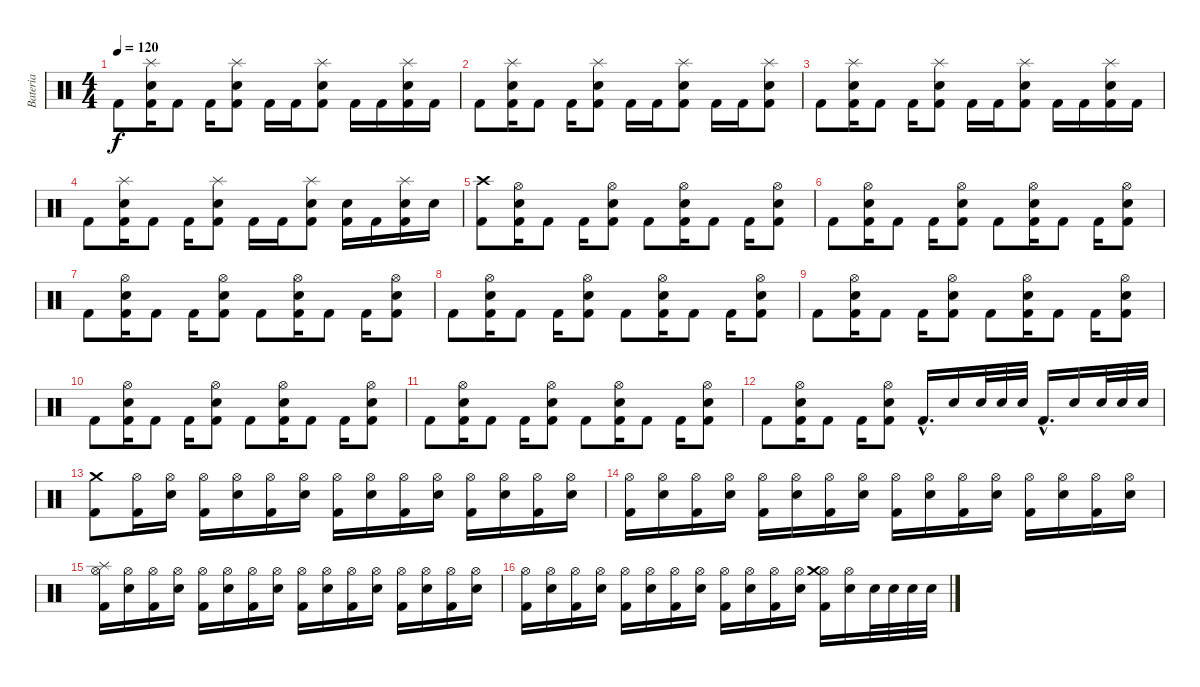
\track ("Bateria" "Bateria") {instrument percussion}
\staff {score}
\articulation defaults
\ts (4 4)
\tempo 120
\clef neutral
\ks c "Kick (hit) 2".8{dy f}
("Kick (hit) 2" "Electric Snare (hit)" "Splash (hit)").16 "Kick (hit) 2".8 "Kick (hit) 2".16 ("Kick (hit) 2" "Electric Snare (hit)" "Splash (hit)").8 "Kick (hit) 2".16 "Kick (hit) 2".16 ("Kick (hit) 2" "Electric Snare (hit)" "Splash (hit)").8 "Kick (hit) 2".16 "Kick (hit) 2".16 ("Kick (hit) 2" "Electric Snare (hit)" "Splash (hit)").16 "Kick (hit) 2".16 |
"Kick (hit) 2".8 ("Kick (hit) 2" "Electric Snare (hit)" "Splash (hit)").16 "Kick (hit) 2".8 "Kick (hit) 2".16 ("Kick (hit) 2" "Electric Snare (hit)" "Splash (hit)").8 "Kick (hit) 2".16 "Kick (hit) 2".16 ("Kick (hit) 2" "Electric Snare (hit)" "Splash (hit)").8 "Kick (hit) 2".16 "Kick (hit) 2".16 ("Kick (hit) 2" "Electric Snare (hit)" "Splash (hit)").8 |
"Kick (hit) 2".8 ("Kick (hit) 2" "Electric Snare (hit)" "Splash (hit)").16 "Kick (hit) 2".8 "Kick (hit) 2".16 ("Kick (hit) 2" "Electric Snare (hit)" "Splash (hit)").8 "Kick (hit) 2".16 "Kick (hit) 2".16 ("Kick (hit) 2" "Electric Snare (hit)" "Splash (hit)").8 "Kick (hit) 2".16 "Kick (hit) 2".16 ("Kick (hit) 2" "Electric Snare (hit)" "Splash (hit)").16 "Kick (hit) 2".16 |
"Kick (hit) 2".8 ("Kick (hit) 2" "Electric Snare (hit)" "Splash (hit)").16 "Kick (hit) 2".8 "Kick (hit) 2".16 ("Kick (hit) 2" "Electric Snare (hit)" "Splash (hit)").8 "Kick (hit) 2".16 "Kick (hit) 2".16 ("Kick (hit) 2" "Electric Snare (hit)" "Splash (hit)").8 ("Kick (hit) 2" "Electric Snare (hit)").16 "Kick (hit) 2".16 ("Kick (hit) 2" "Electric Snare (hit)" "Splash (hit)").16 "Electric Snare (hit)".16 |
("Kick (hit) 2" "Crash high (hit)").8 ("Kick (hit) 2" "Electric Snare (hit)" "Hi-Hat (open)").16 "Kick (hit) 2".8 "Kick (hit) 2".16 ("Kick (hit) 2" "Electric Snare (hit)" "Hi-Hat (open)").8 "Kick (hit) 2".8 ("Kick (hit) 2" "Electric Snare (hit)" "Hi-Hat (open)").16 "Kick (hit) 2".8 "Kick (hit) 2".16 ("Kick (hit) 2" "Electric Snare (hit)" "Hi-Hat (open)").8 |
"Kick (hit) 2".8 ("Kick (hit) 2" "Electric Snare (hit)" "Hi-Hat (open)").16 "Kick (hit) 2".8 "Kick (hit) 2".16 ("Kick (hit) 2" "Electric Snare (hit)" "Hi-Hat (open)").8 "Kick (hit) 2".8 ("Kick (hit) 2" "Electric Snare (hit)" "Hi-Hat (open)").16 "Kick (hit) 2".8 "Kick (hit) 2".16 ("Kick (hit) 2" "Electric Snare (hit)" "Hi-Hat (open)").8 |
"Kick (hit) 2".8 ("Kick (hit) 2" "Electric Snare (hit)" "Hi-Hat (open)").16 "Kick (hit) 2".8 "Kick (hit) 2".16 ("Kick (hit) 2" "Electric Snare (hit)" "Hi-Hat (open)").8 "Kick (hit) 2".8 ("Kick (hit) 2" "Electric Snare (hit)" "Hi-Hat (open)").16 "Kick (hit) 2".8 "Kick (hit) 2".16 ("Kick (hit) 2" "Electric Snare (hit)" "Hi-Hat (open)").8 |
"Kick (hit) 2".8 ("Kick (hit) 2" "Electric Snare (hit)" "Hi-Hat (open)").16 "Kick (hit) 2".8 "Kick (hit) 2".16 ("Kick (hit) 2" "Electric Snare (hit)" "Hi-Hat (open)").8 "Kick (hit) 2".8 ("Kick (hit) 2" "Electric Snare (hit)" "Hi-Hat (open)").16 "Kick (hit) 2".8 "Kick (hit) 2".16 ("Kick (hit) 2" "Electric Snare (hit)" "Hi-Hat (open)").8 |
"Kick (hit) 2".8 ("Kick (hit) 2" "Electric Snare (hit)" "Hi-Hat (open)").16 "Kick (hit) 2".8 "Kick (hit) 2".16 ("Kick (hit) 2" "Electric Snare (hit)" "Hi-Hat (open)").8 "Kick (hit) 2".8 ("Kick (hit) 2" "Electric Snare (hit)" "Hi-Hat (open)").16 "Kick (hit) 2".8 "Kick (hit) 2".16 ("Kick (hit) 2" "Electric Snare (hit)" "Hi-Hat (open)").8 |
"Kick (hit) 2".8 ("Kick (hit) 2" "Electric Snare (hit)" "Hi-Hat (open)").16 "Kick (hit) 2".8 "Kick (hit) 2".16 ("Kick (hit) 2" "Electric Snare (hit)" "Hi-Hat (open)").8 "Kick (hit) 2".8 ("Kick (hit) 2" "Electric Snare (hit)" "Hi-Hat (open)").16 "Kick (hit) 2".8 "Kick (hit) 2".16 ("Kick (hit) 2" "Electric Snare (hit)" "Hi-Hat (open)").8 |
"Kick (hit) 2".8 ("Kick (hit) 2" "Electric Snare (hit)" "Hi-Hat (open)").16 "Kick (hit) 2".8 "Kick (hit) 2".16 ("Kick (hit) 2" "Electric Snare (hit)" "Hi-Hat (open)").8 "Kick (hit) 2".8 ("Kick (hit) 2" "Electric Snare (hit)" "Hi-Hat (open)").16 "Kick (hit) 2".8 "Kick (hit) 2".16 ("Kick (hit) 2" "Electric Snare (hit)" "Hi-Hat (open)").8 |
"Kick (hit) 2".8 ("Kick (hit) 2" "Electric Snare (hit)" "Hi-Hat (open)").16 "Kick (hit) 2".8 "Kick (hit) 2".16 ("Kick (hit) 2" "Electric Snare (hit)" "Hi-Hat (open)").8 "Kick (hit) 2"{hac}.16{d} "Electric Snare (hit)".16 "Electric Snare (hit)".32 "Electric Snare (hit)".32 "Electric Snare (hit)".32 "Kick (hit) 2"{hac}.16{d} "Electric Snare (hit)".16 "Electric Snare (hit)".32 "Electric Snare (hit)".32 "Electric Snare (hit)".32 |
("Kick (hit) 2" "Crash medium (hit)").8 ("Kick (hit) 2" "Hi-Hat (open)").16 ("Electric Snare (hit)" "Hi-Hat (open)").16 ("Kick (hit) 2" "Hi-Hat (open)").16 ("Electric Snare (hit)" "Hi-Hat (open)").16 ("Kick (hit) 2" "Hi-Hat (open)").16 ("Electric Snare (hit)" "Hi-Hat (open)").16 ("Kick (hit) 2" "Hi-Hat (open)").16 ("Electric Snare (hit)" "Hi-Hat (open)").16 ("Kick (hit) 2" "Hi-Hat (open)").16 ("Electric Snare (hit)" "Hi-Hat (open)").16 ("Kick (hit) 2" "Hi-Hat (open)").16 ("Electric Snare (hit)" "Hi-Hat (open)").16 ("Kick (hit) 2" "Hi-Hat (open)").16 ("Electric Snare (hit)" "Hi-Hat (open)").16 |
("Kick (hit) 2" "Hi-Hat (open)").16 ("Electric Snare (hit)" "Hi-Hat (open)").16 ("Kick (hit) 2" "Hi-Hat (open)").16 ("Electric Snare (hit)" "Hi-Hat (open)").16 ("Kick (hit) 2" "Hi-Hat (open)").16 ("Electric Snare (hit)" "Hi-Hat (open)").16 ("Kick (hit) 2" "Hi-Hat (open)").16 ("Electric Snare (hit)" "Hi-Hat (open)").16 ("Kick (hit) 2" "Hi-Hat (open)").16 ("Electric Snare (hit)" "Hi-Hat (open)").16 ("Kick (hit) 2" "Hi-Hat (open)").16 ("Electric Snare (hit)" "Hi-Hat (open)").16 ("Kick (hit) 2" "Hi-Hat (open)").16 ("Electric Snare (hit)" "Hi-Hat (open)").16 ("Kick (hit) 2" "Hi-Hat (open)").16 ("Electric Snare (hit)" "Hi-Hat (open)").16 |
("Kick (hit) 2" "Hi-Hat (open)" "Splash (hit)").16 ("Electric Snare (hit)" "Hi-Hat (open)").16 ("Kick (hit) 2" "Hi-Hat (open)").16 ("Electric Snare (hit)" "Hi-Hat (open)").16 ("Kick (hit) 2" "Hi-Hat (open)").16 ("Electric Snare (hit)" "Hi-Hat (open)").16 ("Kick (hit) 2" "Hi-Hat (open)").16 ("Electric Snare (hit)" "Hi-Hat (open)").16 ("Kick (hit) 2" "Hi-Hat (open)").16 ("Electric Snare (hit)" "Hi-Hat (open)").16 ("Kick (hit) 2" "Hi-Hat (open)").16 ("Electric Snare (hit)" "Hi-Hat (open)").16 ("Kick (hit) 2" "Hi-Hat (open)").16 ("Electric Snare (hit)" "Hi-Hat (open)").16 ("Kick (hit) 2" "Hi-Hat (open)").16 ("Electric Snare (hit)" "Hi-Hat (open)").16 |
("Kick (hit) 2" "Hi-Hat (open)").16 ("Electric Snare (hit)" "Hi-Hat (open)").16 ("Kick (hit) 2" "Hi-Hat (open)").16 ("Electric Snare (hit)" "Hi-Hat (open)").16 ("Kick (hit) 2" "Hi-Hat (open)").16 ("Electric Snare (hit)" "Hi-Hat (open)").16 ("Kick (hit) 2" "Hi-Hat (open)").16 ("Electric Snare (hit)" "Hi-Hat (open)").16 ("Kick (hit) 2" "Hi-Hat (open)").16 ("Electric Snare (hit)" "Hi-Hat (open)").16 ("Kick (hit) 2" "Hi-Hat (open)").16 ("Electric Snare (hit)" "Hi-Hat (open)").16 ("Kick (hit) 2" "Hi-Hat (open)" "Crash medium (hit)").16 ("Electric Snare (hit)" "Hi-Hat (open)").16 "Electric Snare (hit)".32 "Electric Snare (hit)".32 "Electric Snare (hit)".32 "Electric Snare (hit)".32
